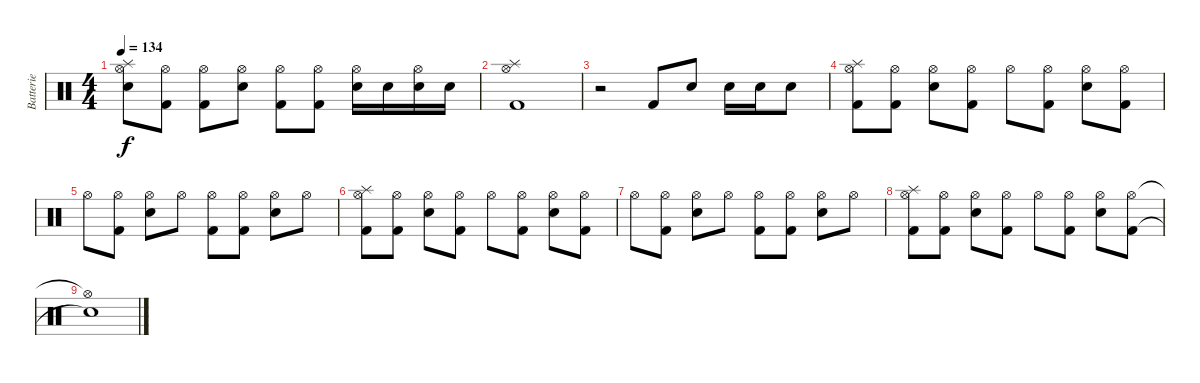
\track ("Batterie" "Batterie") {instrument percussion}
\staff {score}
\articulation defaults
\ts (4 4)
\tempo 134
\clef neutral
\ks c
("Splash (hit)" "Hi-Hat (open)" "Snare (hit) 2").8{dy f} ("Hi-Hat (open)" "Kick (hit) 2").8 ("Hi-Hat (open)" "Kick (hit) 2").8 ("Hi-Hat (open)" "Snare (hit) 2").8 ("Hi-Hat (open)" "Kick (hit) 2").8 ("Hi-Hat (open)" "Kick (hit) 2").8 ("Hi-Hat (open)" "Snare (hit) 2").16 "Snare (hit) 2".16 ("Hi-Hat (open)" "Snare (hit) 2").16 "Snare (hit) 2".16 |
("Splash (hit)" "Hi-Hat (open)" "Kick (hit) 2").1 |
r.2 "Kick (hit) 2".8 "Snare (hit) 2".8 "Snare (hit) 2".16 "Snare (hit) 2".16 "Snare (hit) 2".8 |
("Splash (hit)" "Hi-Hat (open)" "Kick (hit) 2").8 ("Hi-Hat (open)" "Kick (hit) 2").8 ("Hi-Hat (open)" "Snare (hit) 2").8 ("Hi-Hat (open)" "Kick (hit) 2").8 "Hi-Hat (open)".8 ("Hi-Hat (open)" "Kick (hit) 2").8 ("Hi-Hat (open)" "Snare (hit) 2").8 ("Hi-Hat (open)" "Kick (hit) 2").8 |
"Hi-Hat (open)".8 ("Hi-Hat (open)" "Kick (hit) 2").8 ("Hi-Hat (open)" "Snare (hit) 2").8 "Hi-Hat (open)".8 ("Hi-Hat (open)" "Kick (hit) 2").8 ("Hi-Hat (open)" "Kick (hit) 2").8 ("Hi-Hat (open)" "Snare (hit) 2").8 "Hi-Hat (open)".8 |
("Splash (hit)" "Hi-Hat (open)" "Kick (hit) 2").8 ("Hi-Hat (open)" "Kick (hit) 2").8 ("Hi-Hat (open)" "Snare (hit) 2").8 ("Hi-Hat (open)" "Kick (hit) 2").8 "Hi-Hat (open)".8 ("Hi-Hat (open)" "Kick (hit) 2").8 ("Hi-Hat (open)" "Snare (hit) 2").8 ("Hi-Hat (open)" "Kick (hit) 2").8 |
"Hi-Hat (open)".8 ("Hi-Hat (open)" "Kick (hit) 2").8 ("Hi-Hat (open)" "Snare (hit) 2").8 "Hi-Hat (open)".8 ("Hi-Hat (open)" "Kick (hit) 2").8 ("Hi-Hat (open)" "Kick (hit) 2").8 ("Hi-Hat (open)" "Snare (hit) 2").8 "Hi-Hat (open)".8 |
("Splash (hit)" "Hi-Hat (open)" "Kick (hit) 2").8 ("Hi-Hat (open)" "Kick (hit) 2").8 ("Hi-Hat (open)" "Snare (hit) 2").8 ("Hi-Hat (open)" "Kick (hit) 2").8 "Hi-Hat (open)".8 ("Hi-Hat (open)" "Kick (hit) 2").8 ("Hi-Hat (open)" "Snare (hit) 2").8 ("Hi-Hat (open)" "Kick (hit) 2").8 |
("Hi-Hat (open)"{t} "Snare (hit)"{t}).1
